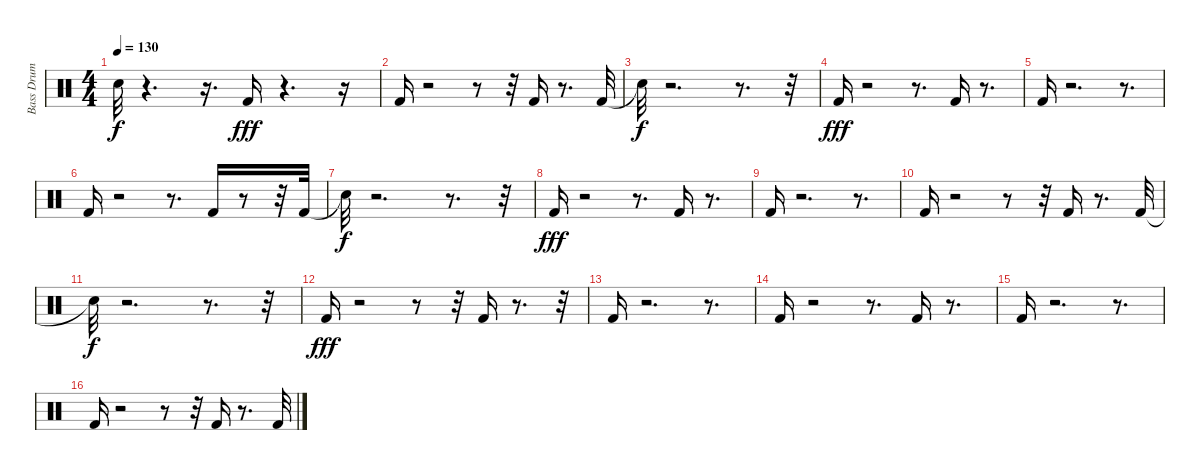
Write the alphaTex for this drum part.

\track ("Bass Drum" "Bass Drum") {instrument percussion}
\staff {score}
\articulation defaults
\ts (4 4)
\tempo 130
\clef neutral
\ks c "Snare (hit)"{t}.32{dy f}
r.4{d} r.16{d} "Kick (hit) 2".16{dy fff} r.4{d} r.16 |
"Kick (hit) 2".16 r.2 r.8 r.32 "Kick (hit) 2".16 r.8{d} "Kick (hit) 2".32 |
"Snare (hit)"{t}.32{dy f} r.2{d} r.8{d} r.32 |
"Kick (hit) 2".16{dy fff} r.2 r.8{d} "Kick (hit) 2".16 r.8{d} |
"Kick (hit) 2".16 r.2{d} r.8{d} |
"Kick (hit) 2".16 r.2 r.8{d} "Kick (hit) 2".16 r.8 r.32 "Kick (hit) 2".32 |
"Snare (hit)"{t}.32{dy f} r.2{d} r.8{d} r.32 |
"Kick (hit) 2".16{dy fff} r.2 r.8{d} "Kick (hit) 2".16 r.8{d} |
"Kick (hit) 2".16 r.2{d} r.8{d} |
"Kick (hit) 2".16 r.2 r.8 r.32 "Kick (hit) 2".16 r.8{d} "Kick (hit) 2".32 |
"Snare (hit)"{t}.32{dy f} r.2{d} r.8{d} r.32 |
"Kick (hit) 2".16{dy fff} r.2 r.8 r.32 "Kick (hit) 2".16 r.8{d} r.32 |
"Kick (hit) 2".16 r.2{d} r.8{d} |
"Kick (hit) 2".16 r.2 r.8{d} "Kick (hit) 2".16 r.8{d} |
"Kick (hit) 2".16 r.2{d} r.8{d} |
"Kick (hit) 2".16 r.2 r.8 r.32 "Kick (hit) 2".16 r.8{d} "Kick (hit) 2".32
